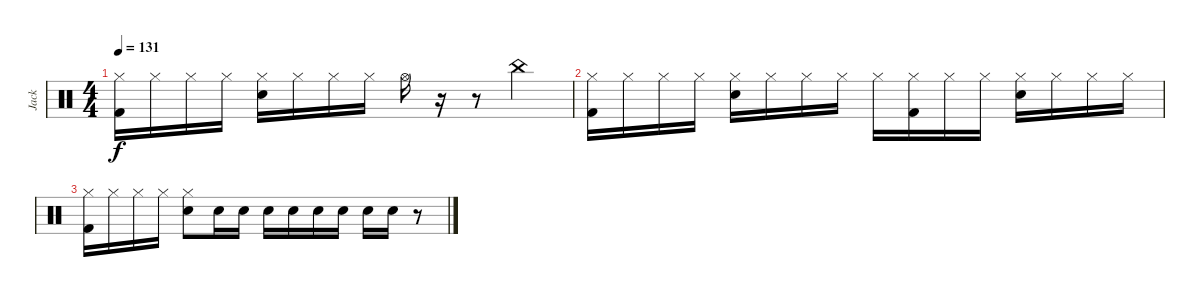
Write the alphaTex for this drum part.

\track ("Jack" "Jack") {instrument percussion}
\staff {score}
\articulation defaults
\ts (4 4)
\tempo 131
\clef neutral
\ks c
("Hi-Hat (closed)" "Kick (hit) 2").16{dy f} "Hi-Hat (closed)".16 "Hi-Hat (closed)".16 "Hi-Hat (closed)".16 ("Hi-Hat (closed)" "Electric Snare (hit)").16 "Hi-Hat (closed)".16 "Hi-Hat (closed)".16 "Hi-Hat (closed)".16 "Hi-Hat (open)".16 r.16 r.8 "China (hit)".4 |
("Hi-Hat (closed)" "Kick (hit) 2").16 "Hi-Hat (closed)".16 "Hi-Hat (closed)".16 "Hi-Hat (closed)".16 ("Hi-Hat (closed)" "Electric Snare (hit)").16 "Hi-Hat (closed)".16 "Hi-Hat (closed)".16 "Hi-Hat (closed)".16 "Hi-Hat (closed)".16 ("Hi-Hat (closed)" "Kick (hit) 2").16 "Hi-Hat (closed)".16 "Hi-Hat (closed)".16 ("Hi-Hat (closed)" "Electric Snare (hit)").16 "Hi-Hat (closed)".16 "Hi-Hat (closed)".16 "Hi-Hat (closed)".16 |
("Hi-Hat (closed)" "Kick (hit) 2").16 "Hi-Hat (closed)".16 "Hi-Hat (closed)".16 "Hi-Hat (closed)".16 ("Hi-Hat (closed)" "Electric Snare (hit)").8 "Electric Snare (hit)".16 "Electric Snare (hit)".16 "Electric Snare (hit)".16 "Electric Snare (hit)".16 "Electric Snare (hit)".16 "Electric Snare (hit)".16 "Electric Snare (hit)".16 "Electric Snare (hit)".16 r.8
